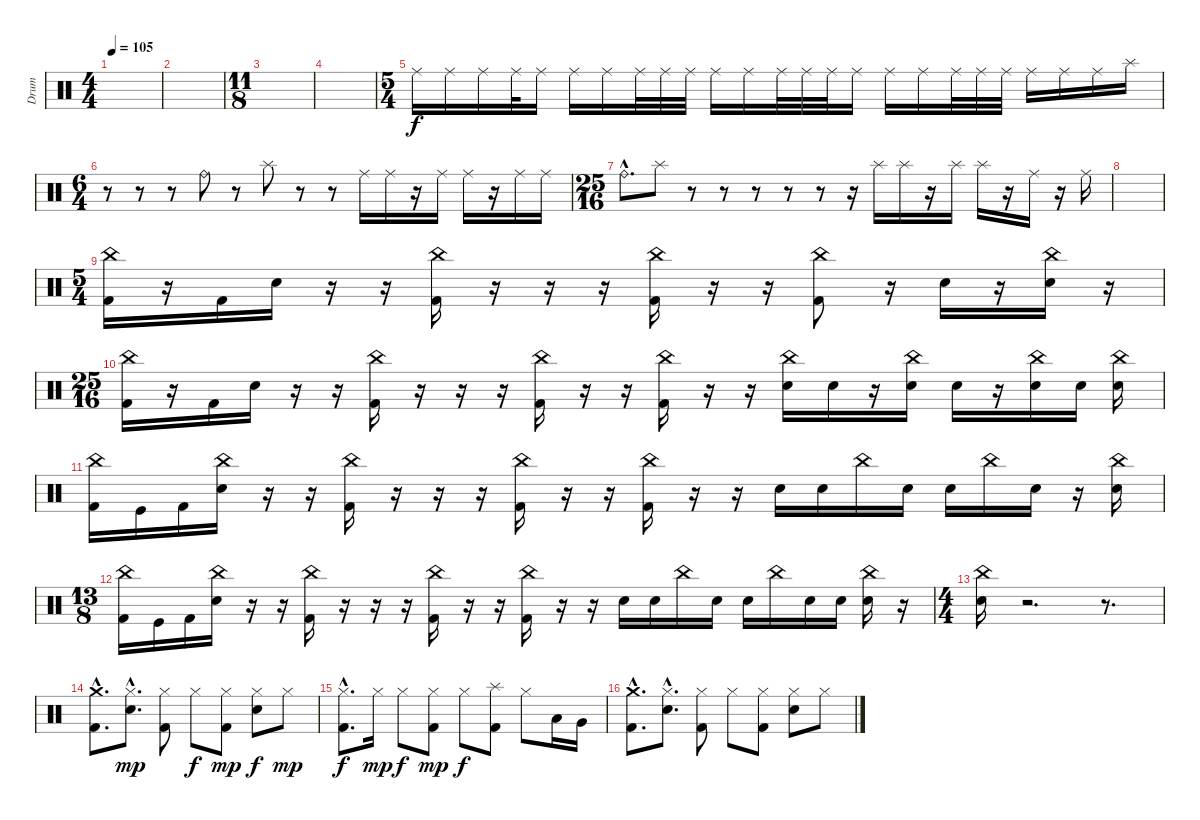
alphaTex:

\track ("Drum" "Drum") {instrument percussion}
\staff {score}
\articulation defaults
\ts (4 4)
\tempo 105
\clef neutral
\ks c
|
|
\ts (11 8)
|
|
\ts (5 4)
"Ride (middle)".16 "Ride (middle)".16 "Ride (middle)".16 "Ride (middle)".32 "Ride (middle)".16 "Ride (middle)".16 "Ride (middle)".16 "Ride (middle)".32 "Ride (middle)".32 "Ride (middle)".32 "Ride (middle)".16 "Ride (middle)".16 "Ride (middle)".32 "Ride (middle)".32 "Ride (middle)".32 "Ride (middle)".16 "Ride (middle)".16 "Ride (middle)".16 "Ride (middle)".32 "Ride (middle)".32 "Ride (middle)".32 "Ride (middle)".16 "Ride (middle)".16 "Ride (middle)".16 "Splash (hit)".16 |
\ts (6 4)
r.8 r.8 r.8 "Ride (bell)".8 r.8 "Splash (hit)".8 r.8 r.8 "Ride (middle)".16 "Ride (middle)".16 r.16 "Ride (middle)".16 "Ride (middle)".16 r.16 "Ride (middle)".16 "Ride (middle)".16 |
\ts (25 16)
"Ride (bell)"{hac}.8{d} "Splash (hit)".8 r.8 r.8 r.8 r.8 r.8 r.16 "Splash (hit)".16 "Splash (hit)".16 r.16 "Splash (hit)".16 "Splash (hit)".16 r.16 "Ride (middle)".16 r.16 "Ride (middle)".16 |
|
\ts (5 4)
("China (hit)" "Kick (hit) 2").16 r.16 "Kick (hit) 2".16 "Snare (hit) 2".16 r.16 r.16 ("China (hit)" "Kick (hit) 2").16 r.16 r.16 r.16 ("China (hit)" "Kick (hit) 2").16 r.16 r.16 ("China (hit)" "Kick (hit) 2").8 r.16 "Snare (hit) 2".16 r.16 ("China (hit)" "Snare (hit) 2").16 r.16 |
\ts (25 16)
("China (hit)" "Kick (hit) 2").16 r.16 "Kick (hit) 2".16 "Snare (hit) 2".16 r.16 r.16 ("China (hit)" "Kick (hit) 2").16 r.16 r.16 r.16 ("China (hit)" "Kick (hit) 2").16 r.16 r.16 ("China (hit)" "Kick (hit) 2").16 r.16 r.16 ("China (hit)" "Snare (hit) 2").16 "Snare (hit) 2".16 r.16 ("China (hit)" "Snare (hit) 2").16 "Snare (hit) 2".16 r.16 ("China (hit)" "Snare (hit) 2").16 "Snare (hit) 2".16 ("China (hit)" "Snare (hit) 2").16 |
("China (hit)" "Kick (hit) 2").16 "Kick (hit)".16 "Kick (hit) 2".16 ("China (hit)" "Snare (hit) 2").16 r.16 r.16 ("China (hit)" "Kick (hit) 2").16 r.16 r.16 r.16 ("China (hit)" "Kick (hit) 2").16 r.16 r.16 ("China (hit)" "Kick (hit) 2").16 r.16 r.16 "Snare (hit) 2".16 "Snare (hit) 2".16 "China (hit)".16 "Snare (hit) 2".16 "Snare (hit) 2".16 "China (hit)".16 "Snare (hit) 2".16 r.16 ("China (hit)" "Snare (hit) 2").16 |
\ts (13 8)
("China (hit)" "Kick (hit) 2").16 "Kick (hit)".16 "Kick (hit) 2".16 ("China (hit)" "Snare (hit) 2").16 r.16 r.16 ("China (hit)" "Kick (hit) 2").16 r.16 r.16 r.16 ("China (hit)" "Kick (hit) 2").16 r.16 r.16 ("China (hit)" "Kick (hit) 2").16 r.16 r.16 "Snare (hit) 2".16 "Snare (hit) 2".16 "China (hit)".16 "Snare (hit) 2".16 "Snare (hit) 2".16 "China (hit)".16 "Snare (hit) 2".16 "Snare (hit) 2".16 ("China (hit)" "Snare (hit) 2").16 r.16 |
\ts (4 4)
("China (hit)" "Snare (hit) 2").16 r.2{d} r.8{d} |
("Crash medium (hit)"{hac} "Kick (hit) 2"{hac}).8{d} ("Hi-Hat (closed)"{hac} "Snare (hit) 2"{hac}).8{d dy mp} ("Hi-Hat (closed)" "Kick (hit) 2").8 "Hi-Hat (closed)".8{dy f} ("Hi-Hat (closed)" "Kick (hit) 2").8{dy mp} ("Hi-Hat (closed)" "Snare (hit) 2").8{dy f} "Hi-Hat (closed)".8{dy mp} |
("Hi-Hat (closed)"{hac} "Kick (hit) 2"{hac}).8{d dy f} "Hi-Hat (closed)".16{dy mp} "Hi-Hat (closed)".8{dy f} ("Hi-Hat (closed)" "Kick (hit) 2").8{dy mp} "Hi-Hat (closed)".8{dy f} ("Splash (hit)" "Kick (hit) 2").8 "Hi-Hat (closed)".8 "Low Tom (hit)".16 "Very Low Tom (hit)".16 |
("Crash medium (hit)"{hac} "Kick (hit) 2"{hac}).8{d} ("Hi-Hat (closed)"{hac} "Snare (hit) 2"{hac}).8{d} ("Hi-Hat (closed)" "Kick (hit) 2").8 "Hi-Hat (closed)".8 ("Hi-Hat (closed)" "Kick (hit) 2").8 ("Hi-Hat (closed)" "Snare (hit) 2").8 "Hi-Hat (closed)".8
